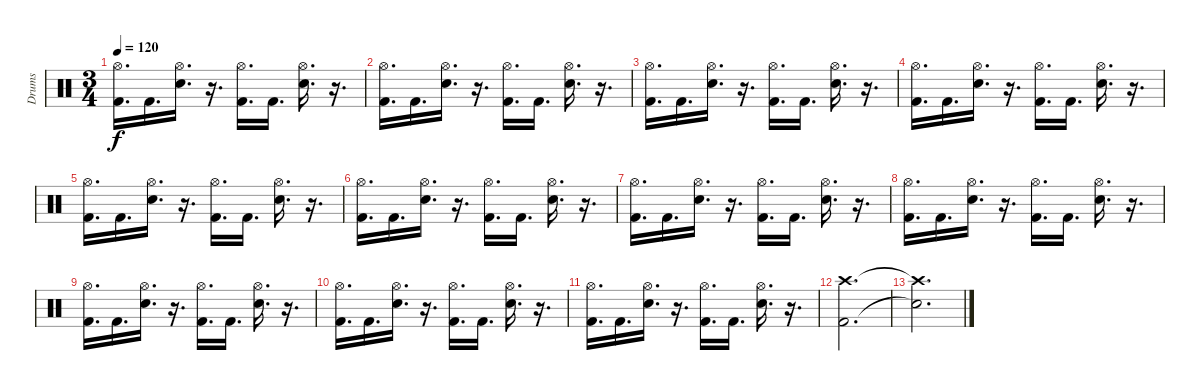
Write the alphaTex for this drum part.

\track ("Drums" "Drums") {instrument percussion}
\staff {score}
\articulation defaults
\ts (3 4)
\tempo 120
\clef neutral
\ks c
("Hi-Hat (open)" "Kick (hit) 2").16{d dy f} "Kick (hit) 2".16{d} ("Hi-Hat (open)" "Electric Snare (hit)").16{d} r.16{d} ("Hi-Hat (open)" "Kick (hit) 2").16{d} "Kick (hit) 2".16{d} ("Hi-Hat (open)" "Electric Snare (hit)").16{d} r.16{d} |
("Hi-Hat (open)" "Kick (hit) 2").16{d} "Kick (hit) 2".16{d} ("Hi-Hat (open)" "Electric Snare (hit)").16{d} r.16{d} ("Hi-Hat (open)" "Kick (hit) 2").16{d} "Kick (hit) 2".16{d} ("Hi-Hat (open)" "Electric Snare (hit)").16{d} r.16{d} |
("Hi-Hat (open)" "Kick (hit) 2").16{d} "Kick (hit) 2".16{d} ("Hi-Hat (open)" "Electric Snare (hit)").16{d} r.16{d} ("Hi-Hat (open)" "Kick (hit) 2").16{d} "Kick (hit) 2".16{d} ("Hi-Hat (open)" "Electric Snare (hit)").16{d} r.16{d} |
("Hi-Hat (open)" "Kick (hit) 2").16{d} "Kick (hit) 2".16{d} ("Hi-Hat (open)" "Electric Snare (hit)").16{d} r.16{d} ("Hi-Hat (open)" "Kick (hit) 2").16{d} "Kick (hit) 2".16{d} ("Hi-Hat (open)" "Electric Snare (hit)").16{d} r.16{d} |
("Hi-Hat (open)" "Kick (hit) 2").16{d} "Kick (hit) 2".16{d} ("Hi-Hat (open)" "Electric Snare (hit)").16{d} r.16{d} ("Hi-Hat (open)" "Kick (hit) 2").16{d} "Kick (hit) 2".16{d} ("Hi-Hat (open)" "Electric Snare (hit)").16{d} r.16{d} |
("Hi-Hat (open)" "Kick (hit) 2").16{d} "Kick (hit) 2".16{d} ("Hi-Hat (open)" "Electric Snare (hit)").16{d} r.16{d} ("Hi-Hat (open)" "Kick (hit) 2").16{d} "Kick (hit) 2".16{d} ("Hi-Hat (open)" "Electric Snare (hit)").16{d} r.16{d} |
("Hi-Hat (open)" "Kick (hit) 2").16{d} "Kick (hit) 2".16{d} ("Hi-Hat (open)" "Electric Snare (hit)").16{d} r.16{d} ("Hi-Hat (open)" "Kick (hit) 2").16{d} "Kick (hit) 2".16{d} ("Hi-Hat (open)" "Electric Snare (hit)").16{d} r.16{d} |
("Hi-Hat (open)" "Kick (hit) 2").16{d} "Kick (hit) 2".16{d} ("Hi-Hat (open)" "Electric Snare (hit)").16{d} r.16{d} ("Hi-Hat (open)" "Kick (hit) 2").16{d} "Kick (hit) 2".16{d} ("Hi-Hat (open)" "Electric Snare (hit)").16{d} r.16{d} |
("Hi-Hat (open)" "Kick (hit) 2").16{d} "Kick (hit) 2".16{d} ("Hi-Hat (open)" "Electric Snare (hit)").16{d} r.16{d} ("Hi-Hat (open)" "Kick (hit) 2").16{d} "Kick (hit) 2".16{d} ("Hi-Hat (open)" "Electric Snare (hit)").16{d} r.16{d} |
("Hi-Hat (open)" "Kick (hit) 2").16{d} "Kick (hit) 2".16{d} ("Hi-Hat (open)" "Electric Snare (hit)").16{d} r.16{d} ("Hi-Hat (open)" "Kick (hit) 2").16{d} "Kick (hit) 2".16{d} ("Hi-Hat (open)" "Electric Snare (hit)").16{d} r.16{d} |
("Hi-Hat (open)" "Kick (hit) 2").16{d} "Kick (hit) 2".16{d} ("Hi-Hat (open)" "Electric Snare (hit)").16{d} r.16{d} ("Hi-Hat (open)" "Kick (hit) 2").16{d} "Kick (hit) 2".16{d} ("Hi-Hat (open)" "Electric Snare (hit)").16{d} r.16{d} |
("Crash high (hit)" "Kick (hit) 2").2{d} |
("Crash high (hit)"{t} "Snare (hit)"{t}).2{d}
